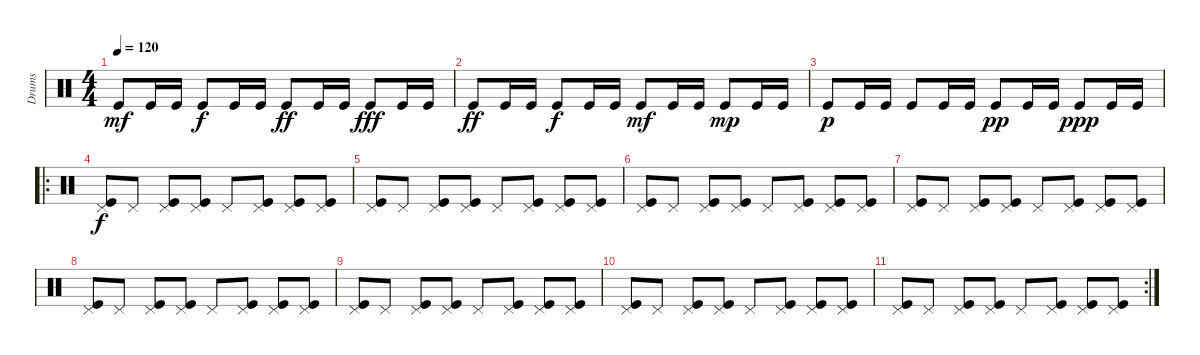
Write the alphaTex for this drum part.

\track ("Drums" "Drums") {instrument percussion}
\staff {score}
\articulation defaults
\ts (4 4)
\tempo 120
\clef neutral
\ks c "Kick (hit)".8{dy mf} "Kick (hit)".16 "Kick (hit)".16 "Kick (hit)".8{dy f} "Kick (hit)".16 "Kick (hit)".16 "Kick (hit)".8{dy ff} "Kick (hit)".16 "Kick (hit)".16 "Kick (hit)".8{dy fff} "Kick (hit)".16 "Kick (hit)".16
|
"Kick (hit)".8{dy ff} "Kick (hit)".16 "Kick (hit)".16 "Kick (hit)".8{dy f} "Kick (hit)".16 "Kick (hit)".16 "Kick (hit)".8{dy mf} "Kick (hit)".16 "Kick (hit)".16 "Kick (hit)".8{dy mp} "Kick (hit)".16 "Kick (hit)".16 |
"Kick (hit)".8{dy p} "Kick (hit)".16 "Kick (hit)".16 "Kick (hit)".8 "Kick (hit)".16 "Kick (hit)".16 "Kick (hit)".8{dy pp} "Kick (hit)".16 "Kick (hit)".16 "Kick (hit)".8{dy ppp} "Kick (hit)".16 "Kick (hit)".16 |
\ro
("Pedal Hi-Hat (hit)" "Kick (hit)").8{dy f} "Pedal Hi-Hat (hit)".8 ("Pedal Hi-Hat (hit)" "Kick (hit)").8 ("Pedal Hi-Hat (hit)" "Kick (hit)").8 "Pedal Hi-Hat (hit)".8 ("Pedal Hi-Hat (hit)" "Kick (hit)").8 ("Pedal Hi-Hat (hit)" "Kick (hit)").8 ("Pedal Hi-Hat (hit)" "Kick (hit)").8 |
("Pedal Hi-Hat (hit)" "Kick (hit)").8 "Pedal Hi-Hat (hit)".8 ("Pedal Hi-Hat (hit)" "Kick (hit)").8 ("Pedal Hi-Hat (hit)" "Kick (hit)").8 "Pedal Hi-Hat (hit)".8 ("Pedal Hi-Hat (hit)" "Kick (hit)").8 ("Pedal Hi-Hat (hit)" "Kick (hit)").8 ("Pedal Hi-Hat (hit)" "Kick (hit)").8 |
("Pedal Hi-Hat (hit)" "Kick (hit)").8 "Pedal Hi-Hat (hit)".8 ("Pedal Hi-Hat (hit)" "Kick (hit)").8 ("Pedal Hi-Hat (hit)" "Kick (hit)").8 "Pedal Hi-Hat (hit)".8 ("Pedal Hi-Hat (hit)" "Kick (hit)").8 ("Pedal Hi-Hat (hit)" "Kick (hit)").8 ("Pedal Hi-Hat (hit)" "Kick (hit)").8 |
("Pedal Hi-Hat (hit)" "Kick (hit)").8 "Pedal Hi-Hat (hit)".8 ("Pedal Hi-Hat (hit)" "Kick (hit)").8 ("Pedal Hi-Hat (hit)" "Kick (hit)").8 "Pedal Hi-Hat (hit)".8 ("Pedal Hi-Hat (hit)" "Kick (hit)").8 ("Pedal Hi-Hat (hit)" "Kick (hit)").8 ("Pedal Hi-Hat (hit)" "Kick (hit)").8 |
("Pedal Hi-Hat (hit)" "Kick (hit)").8 "Pedal Hi-Hat (hit)".8 ("Pedal Hi-Hat (hit)" "Kick (hit)").8 ("Pedal Hi-Hat (hit)" "Kick (hit)").8 "Pedal Hi-Hat (hit)".8 ("Pedal Hi-Hat (hit)" "Kick (hit)").8 ("Pedal Hi-Hat (hit)" "Kick (hit)").8 ("Pedal Hi-Hat (hit)" "Kick (hit)").8 |
("Pedal Hi-Hat (hit)" "Kick (hit)").8 "Pedal Hi-Hat (hit)".8 ("Pedal Hi-Hat (hit)" "Kick (hit)").8 ("Pedal Hi-Hat (hit)" "Kick (hit)").8 "Pedal Hi-Hat (hit)".8 ("Pedal Hi-Hat (hit)" "Kick (hit)").8 ("Pedal Hi-Hat (hit)" "Kick (hit)").8 ("Pedal Hi-Hat (hit)" "Kick (hit)").8 |
("Pedal Hi-Hat (hit)" "Kick (hit)").8 "Pedal Hi-Hat (hit)".8 ("Pedal Hi-Hat (hit)" "Kick (hit)").8 ("Pedal Hi-Hat (hit)" "Kick (hit)").8 "Pedal Hi-Hat (hit)".8 ("Pedal Hi-Hat (hit)" "Kick (hit)").8 ("Pedal Hi-Hat (hit)" "Kick (hit)").8 ("Pedal Hi-Hat (hit)" "Kick (hit)").8 |
\rc 2
("Pedal Hi-Hat (hit)" "Kick (hit)").8 "Pedal Hi-Hat (hit)".8 ("Pedal Hi-Hat (hit)" "Kick (hit)").8 ("Pedal Hi-Hat (hit)" "Kick (hit)").8 "Pedal Hi-Hat (hit)".8 ("Pedal Hi-Hat (hit)" "Kick (hit)").8 ("Pedal Hi-Hat (hit)" "Kick (hit)").8 ("Pedal Hi-Hat (hit)" "Kick (hit)").8
